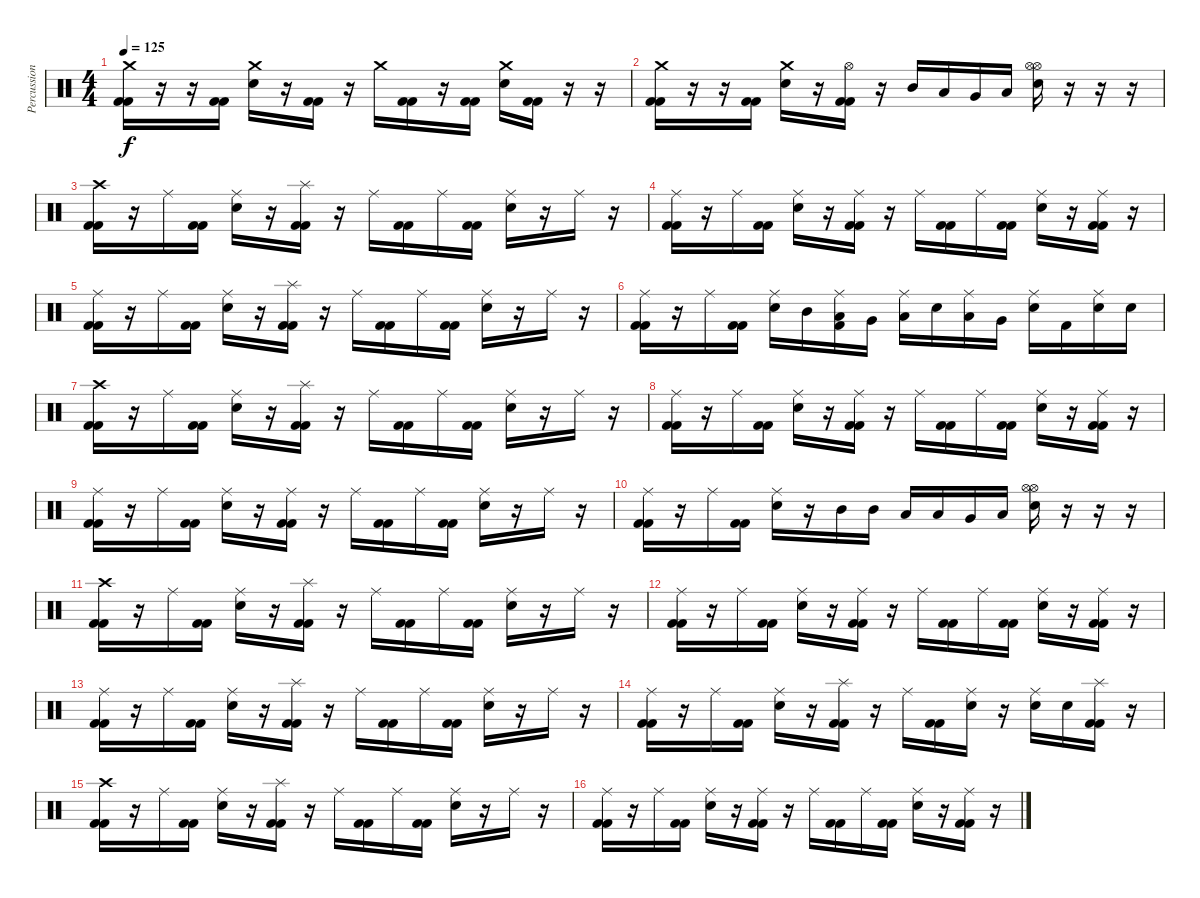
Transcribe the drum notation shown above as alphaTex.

\track ("Percussion" "Percussion") {instrument percussion}
\staff {score}
\articulation defaults
\ts (4 4)
\tempo 125
\clef neutral
\ks c
("Crash medium (hit)" "Kick (hit) 2" "Kick (hit) 2").16{dy f} r.16 r.16 ("Kick (hit) 2" "Kick (hit) 2").16 ("Crash medium (hit)" "Electric Snare (hit)").16 r.16 ("Kick (hit) 2" "Kick (hit) 2").16 r.16 "Crash medium (hit)".16 ("Kick (hit) 2" "Kick (hit) 2").16 r.16 ("Kick (hit) 2" "Kick (hit) 2").16 ("Crash medium (hit)" "Electric Snare (hit)").16 ("Kick (hit) 2" "Kick (hit) 2").16 r.16 r.16 |
("Crash medium (hit)" "Kick (hit) 2" "Kick (hit) 2").16 r.16 r.16 ("Kick (hit) 2" "Kick (hit) 2").16 ("Crash medium (hit)" "Electric Snare (hit)").16 r.16 ("Hi-Hat (open)" "Kick (hit) 2" "Kick (hit) 2").16 r.16 "Mid Tom (hit)".16 "Low Tom (hit)".16 "Very Low Tom (hit)".16 "Low Floor Tom (hit)".16 ("Hi-Hat (open)" "Hi-Hat (open)" "Electric Snare (hit)").16 r.16 r.16 r.16 |
("Crash high (hit)" "Kick (hit) 2" "Kick (hit) 2").16 r.16 "Ride (middle)".16 ("Kick (hit) 2" "Kick (hit) 2").16 ("Ride (middle)" "Electric Snare (hit)").16 r.16 ("Splash (hit)" "Kick (hit) 2" "Kick (hit) 2").16 r.16 "Ride (middle)".16 ("Kick (hit) 2" "Kick (hit) 2").16 "Ride (middle)".16 ("Kick (hit) 2" "Kick (hit) 2").16 ("Ride (middle)" "Electric Snare (hit)").16 r.16 "Ride (middle)".16 r.16 |
("Ride (middle)" "Kick (hit) 2" "Kick (hit) 2").16 r.16 "Ride (middle)".16 ("Kick (hit) 2" "Kick (hit) 2").16 ("Ride (middle)" "Electric Snare (hit)").16 r.16 ("Ride (middle)" "Kick (hit) 2" "Kick (hit) 2").16 r.16 "Ride (middle)".16 ("Kick (hit) 2" "Kick (hit) 2").16 "Ride (middle)".16 ("Kick (hit) 2" "Kick (hit) 2").16 ("Ride (middle)" "Electric Snare (hit)").16 r.16 ("Ride (middle)" "Kick (hit) 2" "Kick (hit) 2").16 r.16 |
("Ride (middle)" "Kick (hit) 2" "Kick (hit) 2").16 r.16 "Ride (middle)".16 ("Kick (hit) 2" "Kick (hit) 2").16 ("Ride (middle)" "Electric Snare (hit)").16 r.16 ("Splash (hit)" "Kick (hit) 2" "Kick (hit) 2").16 r.16 "Ride (middle)".16 ("Kick (hit) 2" "Kick (hit) 2").16 "Ride (middle)".16 ("Kick (hit) 2" "Kick (hit) 2").16 ("Ride (middle)" "Electric Snare (hit)").16 r.16 "Ride (middle)".16 r.16 |
("Ride (middle)" "Kick (hit) 2" "Kick (hit) 2").16 r.16 "Ride (middle)".16 ("Kick (hit) 2" "Kick (hit) 2").16 ("Ride (middle)" "Electric Snare (hit)").16 "Mid Tom (hit)".16 ("Ride (middle)" "Low Tom (hit)" "Kick (hit) 2").16 "Very Low Tom (hit)".16 ("Ride (middle)" "Low Floor Tom (hit)").16 "Electric Snare (hit)".16 ("Ride (middle)" "Low Tom (hit)").16 "Very Low Tom (hit)".16 ("Ride (middle)" "Electric Snare (hit)").16 "Kick (hit) 2".16 ("Ride (middle)" "Electric Snare (hit)").16 "Electric Snare (hit)".16 |
("Crash high (hit)" "Kick (hit) 2" "Kick (hit) 2").16 r.16 "Ride (middle)".16 ("Kick (hit) 2" "Kick (hit) 2").16 ("Ride (middle)" "Electric Snare (hit)").16 r.16 ("Splash (hit)" "Kick (hit) 2" "Kick (hit) 2").16 r.16 "Ride (middle)".16 ("Kick (hit) 2" "Kick (hit) 2").16 "Ride (middle)".16 ("Kick (hit) 2" "Kick (hit) 2").16 ("Ride (middle)" "Electric Snare (hit)").16 r.16 "Ride (middle)".16 r.16 |
("Ride (middle)" "Kick (hit) 2" "Kick (hit) 2").16 r.16 "Ride (middle)".16 ("Kick (hit) 2" "Kick (hit) 2").16 ("Ride (middle)" "Electric Snare (hit)").16 r.16 ("Ride (middle)" "Kick (hit) 2" "Kick (hit) 2").16 r.16 "Ride (middle)".16 ("Kick (hit) 2" "Kick (hit) 2").16 "Ride (middle)".16 ("Kick (hit) 2" "Kick (hit) 2").16 ("Ride (middle)" "Electric Snare (hit)").16 r.16 ("Ride (middle)" "Kick (hit) 2" "Kick (hit) 2").16 r.16 |
("Ride (middle)" "Kick (hit) 2" "Kick (hit) 2").16 r.16 "Ride (middle)".16 ("Kick (hit) 2" "Kick (hit) 2").16 ("Ride (middle)" "Electric Snare (hit)").16 r.16 ("Ride (middle)" "Kick (hit) 2" "Kick (hit) 2").16 r.16 "Ride (middle)".16 ("Kick (hit) 2" "Kick (hit) 2").16 "Ride (middle)".16 ("Kick (hit) 2" "Kick (hit) 2").16 ("Ride (middle)" "Electric Snare (hit)").16 r.16 "Ride (middle)".16 r.16 |
("Ride (middle)" "Kick (hit) 2" "Kick (hit) 2").16 r.16 "Ride (middle)".16 ("Kick (hit) 2" "Kick (hit) 2").16 ("Ride (middle)" "Electric Snare (hit)").16 r.16 "Mid Tom (hit)".16 "Mid Tom (hit)".16 "Low Tom (hit)".16 "Low Tom (hit)".16 "Very Low Tom (hit)".16 "Low Floor Tom (hit)".16 ("Hi-Hat (open)" "Hi-Hat (open)" "Electric Snare (hit)").16 r.16 r.16 r.16 |
("Crash high (hit)" "Kick (hit) 2" "Kick (hit) 2").16 r.16 "Ride (middle)".16 ("Kick (hit) 2" "Kick (hit) 2").16 ("Ride (middle)" "Electric Snare (hit)").16 r.16 ("Splash (hit)" "Kick (hit) 2" "Kick (hit) 2").16 r.16 "Ride (middle)".16 ("Kick (hit) 2" "Kick (hit) 2").16 "Ride (middle)".16 ("Kick (hit) 2" "Kick (hit) 2").16 ("Ride (middle)" "Electric Snare (hit)").16 r.16 "Ride (middle)".16 r.16 |
("Ride (middle)" "Kick (hit) 2" "Kick (hit) 2").16 r.16 "Ride (middle)".16 ("Kick (hit) 2" "Kick (hit) 2").16 ("Ride (middle)" "Electric Snare (hit)").16 r.16 ("Ride (middle)" "Kick (hit) 2" "Kick (hit) 2").16 r.16 "Ride (middle)".16 ("Kick (hit) 2" "Kick (hit) 2").16 "Ride (middle)".16 ("Kick (hit) 2" "Kick (hit) 2").16 ("Ride (middle)" "Electric Snare (hit)").16 r.16 ("Ride (middle)" "Kick (hit) 2" "Kick (hit) 2").16 r.16 |
("Ride (middle)" "Kick (hit) 2" "Kick (hit) 2").16 r.16 "Ride (middle)".16 ("Kick (hit) 2" "Kick (hit) 2").16 ("Ride (middle)" "Electric Snare (hit)").16 r.16 ("Splash (hit)" "Kick (hit) 2" "Kick (hit) 2").16 r.16 "Ride (middle)".16 ("Kick (hit) 2" "Kick (hit) 2").16 "Ride (middle)".16 ("Kick (hit) 2" "Kick (hit) 2").16 ("Ride (middle)" "Electric Snare (hit)").16 r.16 "Ride (middle)".16 r.16 |
("Ride (middle)" "Kick (hit) 2" "Kick (hit) 2").16 r.16 "Ride (middle)".16 ("Kick (hit) 2" "Kick (hit) 2").16 ("Ride (middle)" "Electric Snare (hit)").16 r.16 ("Splash (hit)" "Kick (hit) 2" "Kick (hit) 2").16 r.16 "Ride (middle)".16 ("Kick (hit) 2" "Kick (hit) 2").16 ("Ride (middle)" "Electric Snare (hit)").16 r.16 ("Ride (middle)" "Electric Snare (hit)").16 "Electric Snare (hit)".16 ("Splash (hit)" "Kick (hit) 2" "Kick (hit) 2").16 r.16 |
("Crash high (hit)" "Kick (hit) 2" "Kick (hit) 2").16 r.16 "Ride (middle)".16 ("Kick (hit) 2" "Kick (hit) 2").16 ("Ride (middle)" "Electric Snare (hit)").16 r.16 ("Splash (hit)" "Kick (hit) 2" "Kick (hit) 2").16 r.16 "Ride (middle)".16 ("Kick (hit) 2" "Kick (hit) 2").16 "Ride (middle)".16 ("Kick (hit) 2" "Kick (hit) 2").16 ("Ride (middle)" "Electric Snare (hit)").16 r.16 "Ride (middle)".16 r.16 |
("Ride (middle)" "Kick (hit) 2" "Kick (hit) 2").16 r.16 "Ride (middle)".16 ("Kick (hit) 2" "Kick (hit) 2").16 ("Ride (middle)" "Electric Snare (hit)").16 r.16 ("Ride (middle)" "Kick (hit) 2" "Kick (hit) 2").16 r.16 "Ride (middle)".16 ("Kick (hit) 2" "Kick (hit) 2").16 "Ride (middle)".16 ("Kick (hit) 2" "Kick (hit) 2").16 ("Ride (middle)" "Electric Snare (hit)").16 r.16 ("Ride (middle)" "Kick (hit) 2" "Kick (hit) 2").16 r.16
